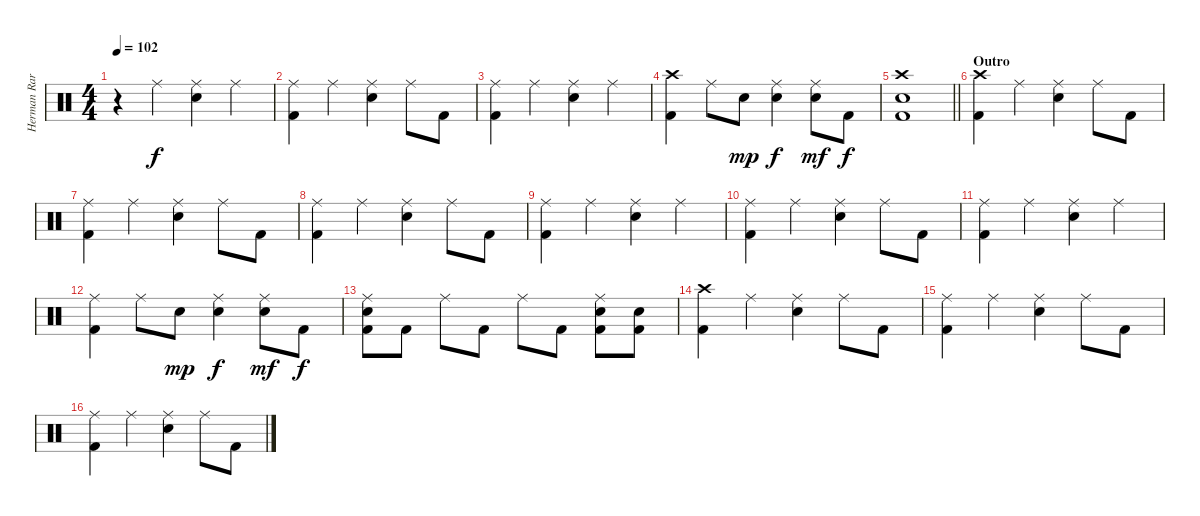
\track ("Herman Rarebell" "Herman Rar") {instrument percussion}
\staff {score}
\articulation defaults
\ts (4 4)
\tempo 102
\clef neutral
\ks c
r.4{dy f} "Ride (middle)".4 ("Ride (middle)" "Electric Snare (hit)").4 "Ride (middle)".4 |
("Ride (middle)" "Kick (hit) 2").4 "Ride (middle)".4 ("Ride (middle)" "Electric Snare (hit)").4 "Ride (middle)".8 "Kick (hit) 2".8 |
("Ride (middle)" "Kick (hit) 2").4 "Ride (middle)".4 ("Ride (middle)" "Electric Snare (hit)").4 "Ride (middle)".4 |
("Crash high (hit)" "Kick (hit) 2").4 "Ride (middle)".8 "Electric Snare (hit)".8{dy mp} ("Ride (middle)" "Electric Snare (hit)").4{dy f} ("Ride (middle)" "Electric Snare (hit)").8{dy mf} "Kick (hit) 2".8{dy f} |
\barLineRight lightlight
("Crash high (hit)" "Electric Snare (hit)" "Kick (hit) 2").1 |
\section ("" "Outro")
("Crash high (hit)" "Kick (hit) 2").4 "Ride (middle)".4 ("Ride (middle)" "Electric Snare (hit)").4 "Ride (middle)".8 "Kick (hit) 2".8 |
("Ride (middle)" "Kick (hit) 2").4 "Ride (middle)".4 ("Ride (middle)" "Electric Snare (hit)").4 "Ride (middle)".8 "Kick (hit) 2".8 |
("Ride (middle)" "Kick (hit) 2").4 "Ride (middle)".4 ("Ride (middle)" "Electric Snare (hit)").4 "Ride (middle)".8 "Kick (hit) 2".8 |
("Ride (middle)" "Kick (hit) 2").4 "Ride (middle)".4 ("Ride (middle)" "Electric Snare (hit)").4 "Ride (middle)".4 |
("Ride (middle)" "Kick (hit) 2").4 "Ride (middle)".4 ("Ride (middle)" "Electric Snare (hit)").4 "Ride (middle)".8 "Kick (hit) 2".8 |
("Ride (middle)" "Kick (hit) 2").4 "Ride (middle)".4 ("Ride (middle)" "Electric Snare (hit)").4 "Ride (middle)".4 |
("Ride (middle)" "Kick (hit) 2").4 "Ride (middle)".8 "Electric Snare (hit)".8{dy mp} ("Ride (middle)" "Electric Snare (hit)").4{dy f} ("Ride (middle)" "Electric Snare (hit)").8{dy mf} "Kick (hit) 2".8{dy f} |
("Ride (middle)" "Electric Snare (hit)" "Kick (hit) 2").8 "Kick (hit) 2".8 "Ride (middle)".8 "Kick (hit) 2".8 "Ride (middle)".8 "Kick (hit) 2".8 ("Ride (middle)" "Electric Snare (hit)" "Kick (hit) 2").8 ("Electric Snare (hit)" "Kick (hit) 2").8 |
("Crash high (hit)" "Kick (hit) 2").4 "Ride (middle)".4 ("Ride (middle)" "Electric Snare (hit)").4 "Ride (middle)".8 "Kick (hit) 2".8 |
("Ride (middle)" "Kick (hit) 2").4 "Ride (middle)".4 ("Ride (middle)" "Electric Snare (hit)").4 "Ride (middle)".8 "Kick (hit) 2".8 |
("Ride (middle)" "Kick (hit) 2").4 "Ride (middle)".4 ("Ride (middle)" "Electric Snare (hit)").4 "Ride (middle)".8 "Kick (hit) 2".8
